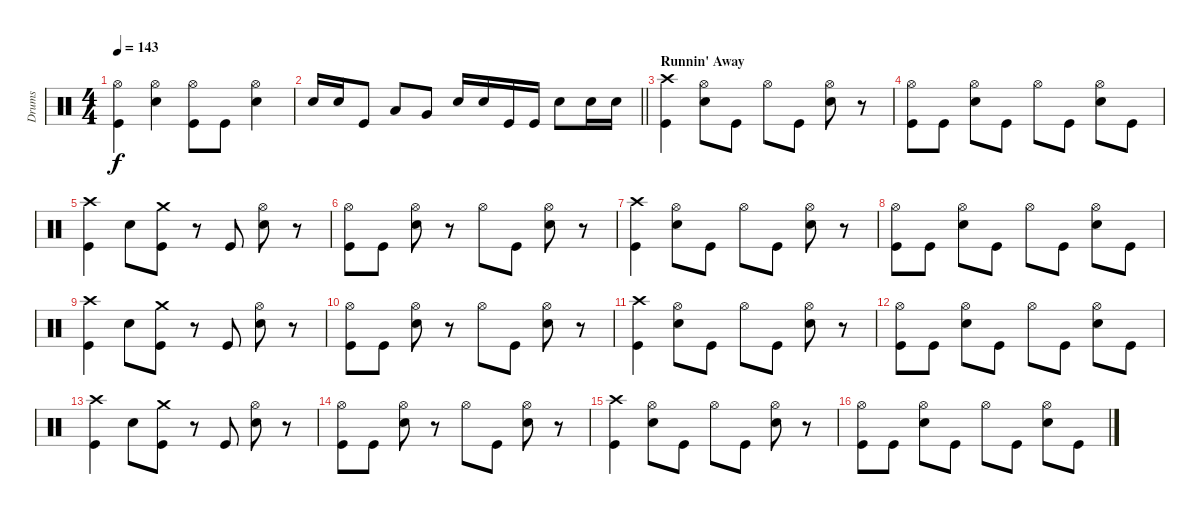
\track ("Drums" "Drums") {instrument percussion}
\staff {score}
\articulation defaults
\ts (4 4)
\tempo 143
\clef neutral
\ks c
("Hi-Hat (open)" "Kick (hit)").4{dy f} ("Hi-Hat (open)" "Snare (hit) 2").4 ("Hi-Hat (open)" "Kick (hit)").8 "Kick (hit)".8 ("Hi-Hat (open)" "Snare (hit) 2").4 |
\barLineRight lightlight "Snare (hit) 2".16 "Snare (hit) 2".16 "Kick (hit)".8 "Low Tom (hit)".8 "Very Low Tom (hit)".8 "Snare (hit) 2".16 "Snare (hit) 2".16 "Kick (hit)".16 "Kick (hit)".16 "Snare (hit) 2".8 "Snare (hit) 2".16 "Snare (hit) 2".16
|
\section ("" "Runnin' Away")
("Crash high (hit)" "Kick (hit)").4 ("Hi-Hat (open)" "Snare (hit) 2").8 "Kick (hit)".8 "Hi-Hat (open)".8 "Kick (hit)".8 ("Hi-Hat (open)" "Snare (hit) 2").8 r.8 |
("Hi-Hat (open)" "Kick (hit)").8 "Kick (hit)".8 ("Hi-Hat (open)" "Snare (hit) 2").8 "Kick (hit)".8 "Hi-Hat (open)".8 "Kick (hit)".8 ("Hi-Hat (open)" "Snare (hit) 2").8 "Kick (hit)".8 |
("Crash high (hit)" "Kick (hit)").4 "Snare (hit) 2".8 ("Crash medium (hit)" "Kick (hit)").8 r.8 "Kick (hit)".8 ("Hi-Hat (open)" "Snare (hit) 2").8 r.8 |
("Hi-Hat (open)" "Kick (hit)").8 "Kick (hit)".8 ("Hi-Hat (open)" "Snare (hit) 2").8 r.8 "Hi-Hat (open)".8 "Kick (hit)".8 ("Hi-Hat (open)" "Snare (hit) 2").8 r.8 |
("Crash high (hit)" "Kick (hit)").4 ("Hi-Hat (open)" "Snare (hit) 2").8 "Kick (hit)".8 "Hi-Hat (open)".8 "Kick (hit)".8 ("Hi-Hat (open)" "Snare (hit) 2").8 r.8 |
("Hi-Hat (open)" "Kick (hit)").8 "Kick (hit)".8 ("Hi-Hat (open)" "Snare (hit) 2").8 "Kick (hit)".8 "Hi-Hat (open)".8 "Kick (hit)".8 ("Hi-Hat (open)" "Snare (hit) 2").8 "Kick (hit)".8 |
("Crash high (hit)" "Kick (hit)").4 "Snare (hit) 2".8 ("Crash medium (hit)" "Kick (hit)").8 r.8 "Kick (hit)".8 ("Hi-Hat (open)" "Snare (hit) 2").8 r.8 |
("Hi-Hat (open)" "Kick (hit)").8 "Kick (hit)".8 ("Hi-Hat (open)" "Snare (hit) 2").8 r.8 "Hi-Hat (open)".8 "Kick (hit)".8 ("Hi-Hat (open)" "Snare (hit) 2").8 r.8 |
("Crash high (hit)" "Kick (hit)").4 ("Hi-Hat (open)" "Snare (hit) 2").8 "Kick (hit)".8 "Hi-Hat (open)".8 "Kick (hit)".8 ("Hi-Hat (open)" "Snare (hit) 2").8 r.8 |
("Hi-Hat (open)" "Kick (hit)").8 "Kick (hit)".8 ("Hi-Hat (open)" "Snare (hit) 2").8 "Kick (hit)".8 "Hi-Hat (open)".8 "Kick (hit)".8 ("Hi-Hat (open)" "Snare (hit) 2").8 "Kick (hit)".8 |
("Crash high (hit)" "Kick (hit)").4 "Snare (hit) 2".8 ("Crash medium (hit)" "Kick (hit)").8 r.8 "Kick (hit)".8 ("Hi-Hat (open)" "Snare (hit) 2").8 r.8 |
("Hi-Hat (open)" "Kick (hit)").8 "Kick (hit)".8 ("Hi-Hat (open)" "Snare (hit) 2").8 r.8 "Hi-Hat (open)".8 "Kick (hit)".8 ("Hi-Hat (open)" "Snare (hit) 2").8 r.8 |
("Crash high (hit)" "Kick (hit)").4 ("Hi-Hat (open)" "Snare (hit) 2").8 "Kick (hit)".8 "Hi-Hat (open)".8 "Kick (hit)".8 ("Hi-Hat (open)" "Snare (hit) 2").8 r.8 |
("Hi-Hat (open)" "Kick (hit)").8 "Kick (hit)".8 ("Hi-Hat (open)" "Snare (hit) 2").8 "Kick (hit)".8 "Hi-Hat (open)".8 "Kick (hit)".8 ("Hi-Hat (open)" "Snare (hit) 2").8 "Kick (hit)".8
